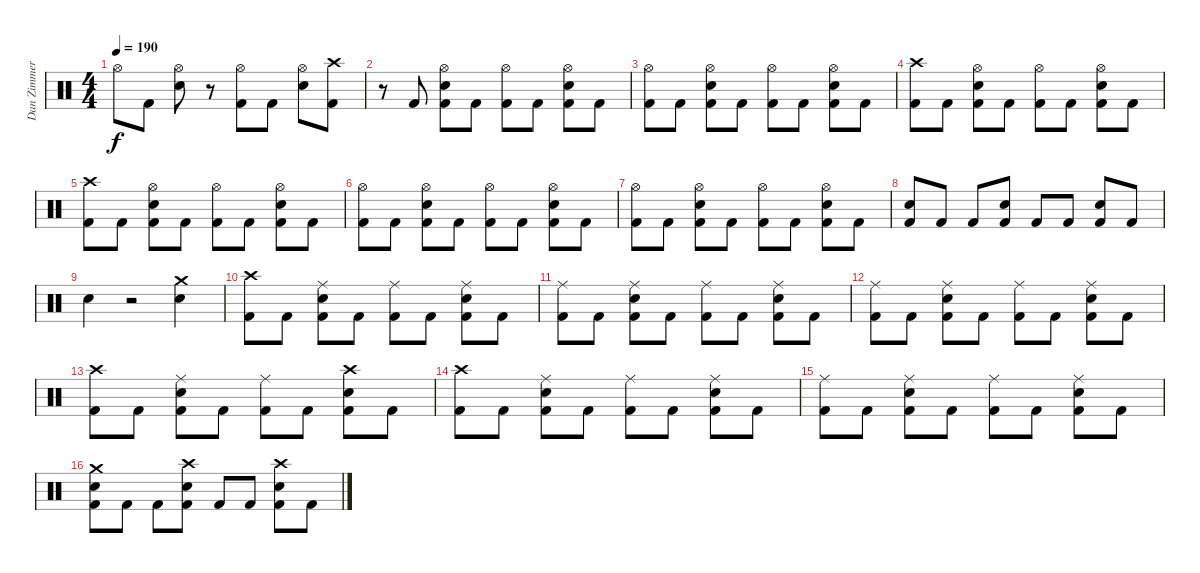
\track ("Dan Zimmermann" "Dan Zimmer") {instrument percussion}
\staff {score}
\articulation defaults
\ts (4 4)
\tempo 190
\clef neutral
\ks c "Hi-Hat (open)".8{dy f} "Kick (hit) 2".8
("Hi-Hat (open)" "Electric Snare (hit)").8 r.8 ("Hi-Hat (open)" "Kick (hit) 2").8 "Kick (hit) 2".8 ("Hi-Hat (open)" "Electric Snare (hit)").8 ("Crash high (hit)" "Kick (hit) 2").8 |
r.8 "Kick (hit) 2".8 ("Hi-Hat (open)" "Electric Snare (hit)" "Kick (hit) 2").8 "Kick (hit) 2".8 ("Hi-Hat (open)" "Kick (hit) 2").8 "Kick (hit) 2".8 ("Hi-Hat (open)" "Electric Snare (hit)" "Kick (hit) 2").8 "Kick (hit) 2".8 |
("Hi-Hat (open)" "Kick (hit) 2").8 "Kick (hit) 2".8 ("Hi-Hat (open)" "Electric Snare (hit)" "Kick (hit) 2").8 "Kick (hit) 2".8 ("Hi-Hat (open)" "Kick (hit) 2").8 "Kick (hit) 2".8 ("Hi-Hat (open)" "Electric Snare (hit)" "Kick (hit) 2").8 "Kick (hit) 2".8 |
("Crash high (hit)" "Kick (hit) 2").8 "Kick (hit) 2".8 ("Hi-Hat (open)" "Electric Snare (hit)" "Kick (hit) 2").8 "Kick (hit) 2".8 ("Hi-Hat (open)" "Kick (hit) 2").8 "Kick (hit) 2".8 ("Hi-Hat (open)" "Electric Snare (hit)" "Kick (hit) 2").8 "Kick (hit) 2".8 |
("Crash high (hit)" "Kick (hit) 2").8 "Kick (hit) 2".8 ("Hi-Hat (open)" "Electric Snare (hit)" "Kick (hit) 2").8 "Kick (hit) 2".8 ("Hi-Hat (open)" "Kick (hit) 2").8 "Kick (hit) 2".8 ("Hi-Hat (open)" "Electric Snare (hit)" "Kick (hit) 2").8 "Kick (hit) 2".8 |
("Hi-Hat (open)" "Kick (hit) 2").8 "Kick (hit) 2".8 ("Hi-Hat (open)" "Electric Snare (hit)" "Kick (hit) 2").8 "Kick (hit) 2".8 ("Hi-Hat (open)" "Kick (hit) 2").8 "Kick (hit) 2".8 ("Hi-Hat (open)" "Electric Snare (hit)" "Kick (hit) 2").8 "Kick (hit) 2".8 |
("Hi-Hat (open)" "Kick (hit) 2").8 "Kick (hit) 2".8 ("Hi-Hat (open)" "Electric Snare (hit)" "Kick (hit) 2").8 "Kick (hit) 2".8 ("Hi-Hat (open)" "Kick (hit) 2").8 "Kick (hit) 2".8 ("Hi-Hat (open)" "Electric Snare (hit)" "Kick (hit) 2").8 "Kick (hit) 2".8 |
("Electric Snare (hit)" "Kick (hit) 2").8 "Kick (hit) 2".8 "Kick (hit) 2".8 ("Electric Snare (hit)" "Kick (hit) 2").8 "Kick (hit) 2".8 "Kick (hit) 2".8 ("Electric Snare (hit)" "Kick (hit) 2").8 "Kick (hit) 2".8 |
"Electric Snare (hit)".4 r.2 ("Crash medium (hit)" "Electric Snare (hit)").4 |
("Crash high (hit)" "Kick (hit) 2").8 "Kick (hit) 2".8 ("Ride (middle)" "Electric Snare (hit)" "Kick (hit) 2").8 "Kick (hit) 2".8 ("Ride (middle)" "Kick (hit) 2").8 "Kick (hit) 2".8 ("Ride (middle)" "Electric Snare (hit)" "Kick (hit) 2").8 "Kick (hit) 2".8 |
("Ride (middle)" "Kick (hit) 2").8 "Kick (hit) 2".8 ("Ride (middle)" "Electric Snare (hit)" "Kick (hit) 2").8 "Kick (hit) 2".8 ("Ride (middle)" "Kick (hit) 2").8 "Kick (hit) 2".8 ("Ride (middle)" "Electric Snare (hit)" "Kick (hit) 2").8 "Kick (hit) 2".8 |
("Ride (middle)" "Kick (hit) 2").8 "Kick (hit) 2".8 ("Ride (middle)" "Electric Snare (hit)" "Kick (hit) 2").8 "Kick (hit) 2".8 ("Ride (middle)" "Kick (hit) 2").8 "Kick (hit) 2".8 ("Ride (middle)" "Electric Snare (hit)" "Kick (hit) 2").8 "Kick (hit) 2".8 |
("Crash high (hit)" "Kick (hit) 2").8 "Kick (hit) 2".8 ("Ride (middle)" "Electric Snare (hit)" "Kick (hit) 2").8 "Kick (hit) 2".8 ("Ride (middle)" "Kick (hit) 2").8 "Kick (hit) 2".8 ("Crash high (hit)" "Electric Snare (hit)" "Kick (hit) 2").8 "Kick (hit) 2".8 |
("Crash high (hit)" "Kick (hit) 2").8 "Kick (hit) 2".8 ("Ride (middle)" "Electric Snare (hit)" "Kick (hit) 2").8 "Kick (hit) 2".8 ("Ride (middle)" "Kick (hit) 2").8 "Kick (hit) 2".8 ("Ride (middle)" "Electric Snare (hit)" "Kick (hit) 2").8 "Kick (hit) 2".8 |
("Ride (middle)" "Kick (hit) 2").8 "Kick (hit) 2".8 ("Ride (middle)" "Electric Snare (hit)" "Kick (hit) 2").8 "Kick (hit) 2".8 ("Ride (middle)" "Kick (hit) 2").8 "Kick (hit) 2".8 ("Ride (middle)" "Electric Snare (hit)" "Kick (hit) 2").8 "Kick (hit) 2".8 |
("Crash medium (hit)" "Electric Snare (hit)" "Kick (hit) 2").8 "Kick (hit) 2".8 "Kick (hit) 2".8 ("Crash high (hit)" "Electric Snare (hit)" "Kick (hit) 2").8 "Kick (hit) 2".8 "Kick (hit) 2".8 ("Crash high (hit)" "Electric Snare (hit)" "Kick (hit) 2").8 "Kick (hit) 2".8
